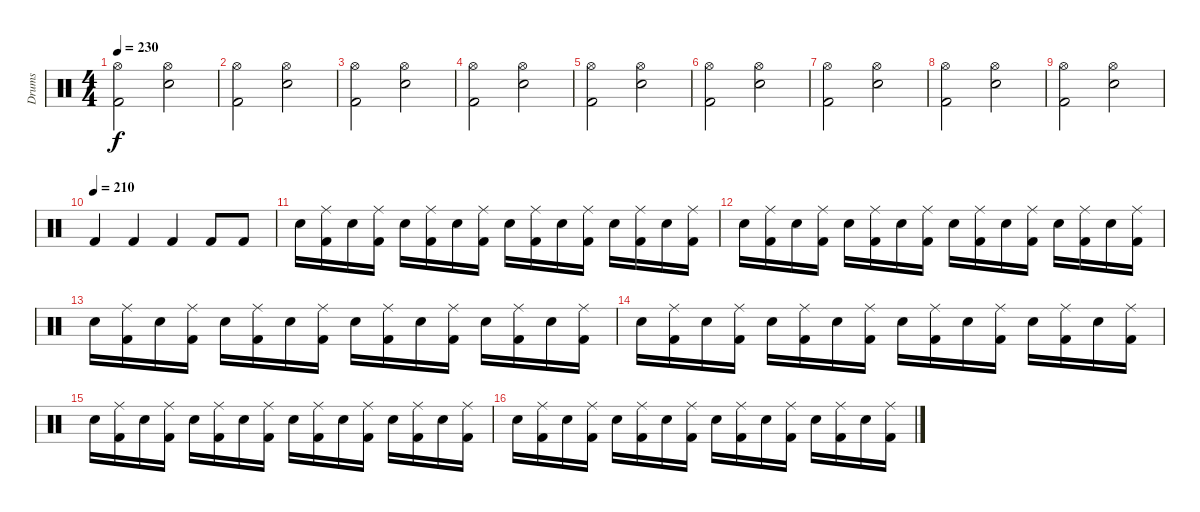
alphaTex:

\track ("Drums" "Drums") {instrument percussion}
\staff {score}
\articulation defaults
\ts (4 4)
\tempo 230
\clef neutral
\ks c
("Hi-Hat (open)" "Kick (hit) 2").2{dy f} ("Hi-Hat (open)" "Electric Snare (hit)").2 |
("Hi-Hat (open)" "Kick (hit) 2").2 ("Hi-Hat (open)" "Electric Snare (hit)").2 |
("Hi-Hat (open)" "Kick (hit) 2").2 ("Hi-Hat (open)" "Electric Snare (hit)").2 |
("Hi-Hat (open)" "Kick (hit) 2").2 ("Hi-Hat (open)" "Electric Snare (hit)").2 |
("Hi-Hat (open)" "Kick (hit) 2").2 ("Hi-Hat (open)" "Electric Snare (hit)").2 |
("Hi-Hat (open)" "Kick (hit) 2").2 ("Hi-Hat (open)" "Electric Snare (hit)").2 |
("Hi-Hat (open)" "Kick (hit) 2").2 ("Hi-Hat (open)" "Electric Snare (hit)").2 |
("Hi-Hat (open)" "Kick (hit) 2").2 ("Hi-Hat (open)" "Electric Snare (hit)").2 |
("Hi-Hat (open)" "Kick (hit) 2").2 ("Hi-Hat (open)" "Electric Snare (hit)").2 |
\tempo (210)
"Kick (hit) 2".4 "Kick (hit) 2".4 "Kick (hit) 2".4 "Kick (hit) 2".8 "Kick (hit) 2".8 |
"Electric Snare (hit)".16 ("Ride (middle)" "Kick (hit) 2").16 "Electric Snare (hit)".16 ("Ride (middle)" "Kick (hit) 2").16 "Electric Snare (hit)".16 ("Ride (middle)" "Kick (hit) 2").16 "Electric Snare (hit)".16 ("Ride (middle)" "Kick (hit) 2").16 "Electric Snare (hit)".16 ("Ride (middle)" "Kick (hit) 2").16 "Electric Snare (hit)".16 ("Ride (middle)" "Kick (hit) 2").16 "Electric Snare (hit)".16 ("Ride (middle)" "Kick (hit) 2").16 "Electric Snare (hit)".16 ("Ride (middle)" "Kick (hit) 2").16 |
"Electric Snare (hit)".16 ("Ride (middle)" "Kick (hit) 2").16 "Electric Snare (hit)".16 ("Ride (middle)" "Kick (hit) 2").16 "Electric Snare (hit)".16 ("Ride (middle)" "Kick (hit) 2").16 "Electric Snare (hit)".16 ("Ride (middle)" "Kick (hit) 2").16 "Electric Snare (hit)".16 ("Ride (middle)" "Kick (hit) 2").16 "Electric Snare (hit)".16 ("Ride (middle)" "Kick (hit) 2").16 "Electric Snare (hit)".16 ("Ride (middle)" "Kick (hit) 2").16 "Electric Snare (hit)".16 ("Ride (middle)" "Kick (hit) 2").16 |
"Electric Snare (hit)".16 ("Ride (middle)" "Kick (hit) 2").16 "Electric Snare (hit)".16 ("Ride (middle)" "Kick (hit) 2").16 "Electric Snare (hit)".16 ("Ride (middle)" "Kick (hit) 2").16 "Electric Snare (hit)".16 ("Ride (middle)" "Kick (hit) 2").16 "Electric Snare (hit)".16 ("Ride (middle)" "Kick (hit) 2").16 "Electric Snare (hit)".16 ("Ride (middle)" "Kick (hit) 2").16 "Electric Snare (hit)".16 ("Ride (middle)" "Kick (hit) 2").16 "Electric Snare (hit)".16 ("Ride (middle)" "Kick (hit) 2").16 |
"Electric Snare (hit)".16 ("Ride (middle)" "Kick (hit) 2").16 "Electric Snare (hit)".16 ("Ride (middle)" "Kick (hit) 2").16 "Electric Snare (hit)".16 ("Ride (middle)" "Kick (hit) 2").16 "Electric Snare (hit)".16 ("Ride (middle)" "Kick (hit) 2").16 "Electric Snare (hit)".16 ("Ride (middle)" "Kick (hit) 2").16 "Electric Snare (hit)".16 ("Ride (middle)" "Kick (hit) 2").16 "Electric Snare (hit)".16 ("Ride (middle)" "Kick (hit) 2").16 "Electric Snare (hit)".16 ("Ride (middle)" "Kick (hit) 2").16 |
"Electric Snare (hit)".16 ("Ride (middle)" "Kick (hit) 2").16 "Electric Snare (hit)".16 ("Ride (middle)" "Kick (hit) 2").16 "Electric Snare (hit)".16 ("Ride (middle)" "Kick (hit) 2").16 "Electric Snare (hit)".16 ("Ride (middle)" "Kick (hit) 2").16 "Electric Snare (hit)".16 ("Ride (middle)" "Kick (hit) 2").16 "Electric Snare (hit)".16 ("Ride (middle)" "Kick (hit) 2").16 "Electric Snare (hit)".16 ("Ride (middle)" "Kick (hit) 2").16 "Electric Snare (hit)".16 ("Ride (middle)" "Kick (hit) 2").16 |
"Electric Snare (hit)".16 ("Ride (middle)" "Kick (hit) 2").16 "Electric Snare (hit)".16 ("Ride (middle)" "Kick (hit) 2").16 "Electric Snare (hit)".16 ("Ride (middle)" "Kick (hit) 2").16 "Electric Snare (hit)".16 ("Ride (middle)" "Kick (hit) 2").16 "Electric Snare (hit)".16 ("Ride (middle)" "Kick (hit) 2").16 "Electric Snare (hit)".16 ("Ride (middle)" "Kick (hit) 2").16 "Electric Snare (hit)".16 ("Ride (middle)" "Kick (hit) 2").16 "Electric Snare (hit)".16 ("Ride (middle)" "Kick (hit) 2").16
